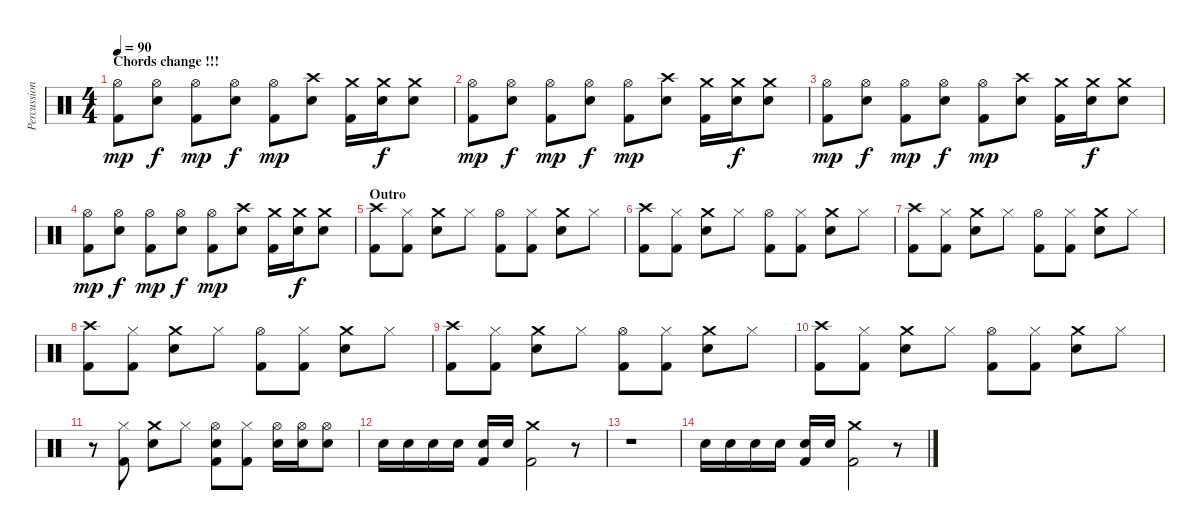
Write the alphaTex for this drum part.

\track ("Percussions" "Percussion") {instrument percussion}
\staff {score}
\articulation defaults
\ts (4 4)
\section ("" "Chords change !!!")
\tempo 90
\clef neutral
\ks c
("Hi-Hat (open)" "Kick (hit) 2").8{dy mp} ("Hi-Hat (open)" "Electric Snare (hit)").8{dy f} ("Hi-Hat (open)" "Kick (hit) 2").8{dy mp} ("Hi-Hat (open)" "Electric Snare (hit)").8{dy f} ("Hi-Hat (open)" "Kick (hit) 2").8{dy mp} ("Crash high (hit)" "Electric Snare (hit)").8 ("Crash medium (hit)" "Kick (hit) 2").16 ("Crash medium (hit)" "Electric Snare (hit)").16{dy f} ("Crash medium (hit)" "Electric Snare (hit)").8 |
("Hi-Hat (open)" "Kick (hit) 2").8{dy mp} ("Hi-Hat (open)" "Electric Snare (hit)").8{dy f} ("Hi-Hat (open)" "Kick (hit) 2").8{dy mp} ("Hi-Hat (open)" "Electric Snare (hit)").8{dy f} ("Hi-Hat (open)" "Kick (hit) 2").8{dy mp} ("Crash high (hit)" "Electric Snare (hit)").8 ("Crash medium (hit)" "Kick (hit) 2").16 ("Crash medium (hit)" "Electric Snare (hit)").16{dy f} ("Crash medium (hit)" "Electric Snare (hit)").8 |
("Hi-Hat (open)" "Kick (hit) 2").8{dy mp} ("Hi-Hat (open)" "Electric Snare (hit)").8{dy f} ("Hi-Hat (open)" "Kick (hit) 2").8{dy mp} ("Hi-Hat (open)" "Electric Snare (hit)").8{dy f} ("Hi-Hat (open)" "Kick (hit) 2").8{dy mp} ("Crash high (hit)" "Electric Snare (hit)").8 ("Crash medium (hit)" "Kick (hit) 2").16 ("Crash medium (hit)" "Electric Snare (hit)").16{dy f} ("Crash medium (hit)" "Electric Snare (hit)").8 |
("Hi-Hat (open)" "Kick (hit) 2").8{dy mp} ("Hi-Hat (open)" "Electric Snare (hit)").8{dy f} ("Hi-Hat (open)" "Kick (hit) 2").8{dy mp} ("Hi-Hat (open)" "Electric Snare (hit)").8{dy f} ("Hi-Hat (open)" "Kick (hit) 2").8{dy mp} ("Crash high (hit)" "Electric Snare (hit)").8 ("Crash medium (hit)" "Kick (hit) 2").16 ("Crash medium (hit)" "Electric Snare (hit)").16{dy f} ("Crash medium (hit)" "Electric Snare (hit)").8 |
\section ("" "Outro")
("Crash high (hit)" "Kick (hit) 2").8 ("Hi-Hat (closed)" "Kick (hit) 2").8 ("Crash medium (hit)" "Electric Snare (hit)").8 "Hi-Hat (closed)".8 ("Hi-Hat (open)" "Kick (hit) 2").8 ("Hi-Hat (closed)" "Kick (hit) 2").8 ("Crash medium (hit)" "Electric Snare (hit)").8 "Hi-Hat (closed)".8 |
("Crash high (hit)" "Kick (hit) 2").8 ("Hi-Hat (closed)" "Kick (hit) 2").8 ("Crash medium (hit)" "Electric Snare (hit)").8 "Hi-Hat (closed)".8 ("Hi-Hat (open)" "Kick (hit) 2").8 ("Hi-Hat (closed)" "Kick (hit) 2").8 ("Crash medium (hit)" "Electric Snare (hit)").8 "Hi-Hat (closed)".8 |
("Crash high (hit)" "Kick (hit) 2").8 ("Hi-Hat (closed)" "Kick (hit) 2").8 ("Crash medium (hit)" "Electric Snare (hit)").8 "Hi-Hat (closed)".8 ("Hi-Hat (open)" "Kick (hit) 2").8 ("Hi-Hat (closed)" "Kick (hit) 2").8 ("Crash medium (hit)" "Electric Snare (hit)").8 "Hi-Hat (closed)".8 |
("Crash high (hit)" "Kick (hit) 2").8 ("Hi-Hat (closed)" "Kick (hit) 2").8 ("Crash medium (hit)" "Electric Snare (hit)").8 "Hi-Hat (closed)".8 ("Hi-Hat (open)" "Kick (hit) 2").8 ("Hi-Hat (closed)" "Kick (hit) 2").8 ("Crash medium (hit)" "Electric Snare (hit)").8 "Hi-Hat (closed)".8 |
("Crash high (hit)" "Kick (hit) 2").8 ("Hi-Hat (closed)" "Kick (hit) 2").8 ("Crash medium (hit)" "Electric Snare (hit)").8 "Hi-Hat (closed)".8 ("Hi-Hat (open)" "Kick (hit) 2").8 ("Hi-Hat (closed)" "Kick (hit) 2").8 ("Crash medium (hit)" "Electric Snare (hit)").8 "Hi-Hat (closed)".8 |
("Crash high (hit)" "Kick (hit) 2").8 ("Hi-Hat (closed)" "Kick (hit) 2").8 ("Crash medium (hit)" "Electric Snare (hit)").8 "Hi-Hat (closed)".8 ("Hi-Hat (open)" "Kick (hit) 2").8 ("Hi-Hat (closed)" "Kick (hit) 2").8 ("Crash medium (hit)" "Electric Snare (hit)").8 "Hi-Hat (closed)".8 |
r.8 ("Hi-Hat (closed)" "Kick (hit) 2").8 ("Crash medium (hit)" "Electric Snare (hit)").8 "Hi-Hat (closed)".8 ("Hi-Hat (open)" "Electric Snare (hit)" "Kick (hit) 2").8 ("Hi-Hat (closed)" "Kick (hit) 2").8 ("Hi-Hat (open)" "Electric Snare (hit)").16 ("Hi-Hat (open)" "Electric Snare (hit)").16 ("Hi-Hat (open)" "Electric Snare (hit)").8 |
"Electric Snare (hit)".16 "Electric Snare (hit)".16 "Electric Snare (hit)".16 "Electric Snare (hit)".16 ("Electric Snare (hit)" "Kick (hit) 2").16 "Electric Snare (hit)".16 ("Crash medium (hit)" "Kick (hit) 2").2 r.8 |
r.1 |
"Electric Snare (hit)".16 "Electric Snare (hit)".16 "Electric Snare (hit)".16 "Electric Snare (hit)".16 ("Electric Snare (hit)" "Kick (hit) 2").16 "Electric Snare (hit)".16 ("Crash medium (hit)" "Kick (hit) 2").2 r.8
